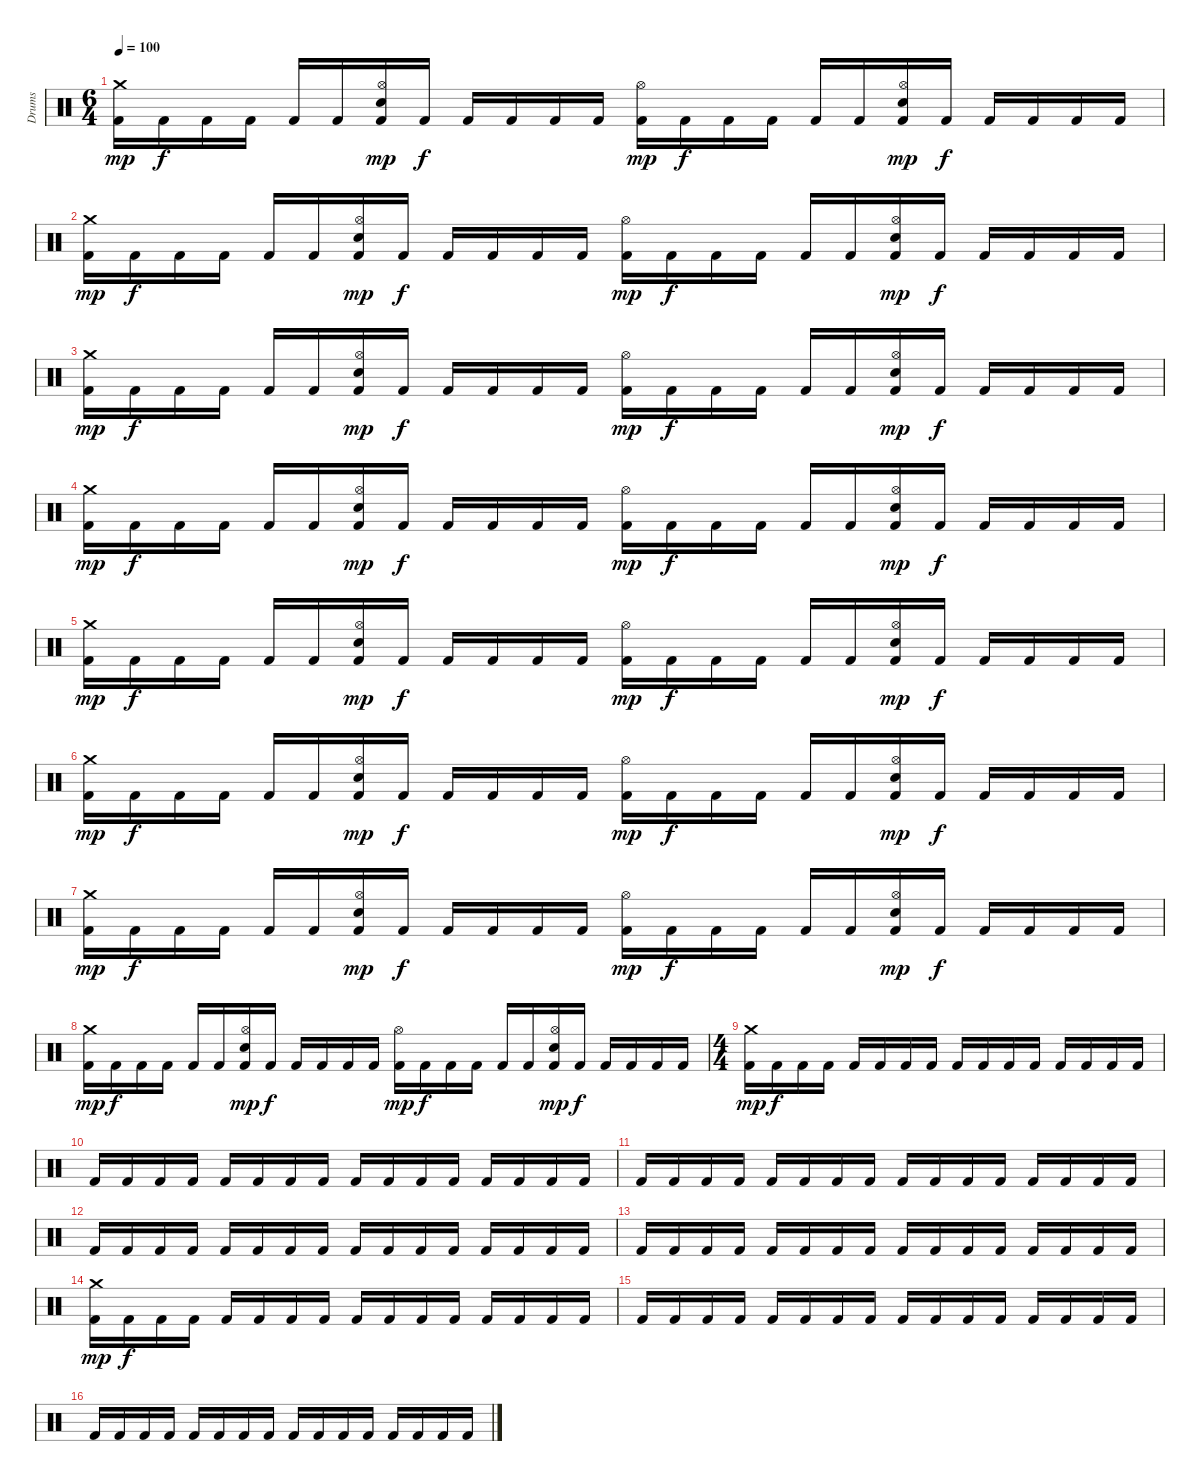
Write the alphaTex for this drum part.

\track ("Drums" "Drums") {instrument percussion}
\staff {score}
\articulation defaults
\ts (6 4)
\tempo 100
\clef neutral
\ks c
("Crash medium (hit)" "Kick (hit) 2").16{dy mp} "Kick (hit) 2".16{dy f} "Kick (hit) 2".16 "Kick (hit) 2".16 "Kick (hit) 2".16 "Kick (hit) 2".16 ("Hi-Hat (open)" "Snare (hit) 2" "Kick (hit) 2").16{dy mp} "Kick (hit) 2".16{dy f} "Kick (hit) 2".16 "Kick (hit) 2".16 "Kick (hit) 2".16 "Kick (hit) 2".16 ("Hi-Hat (open)" "Kick (hit) 2").16{dy mp} "Kick (hit) 2".16{dy f} "Kick (hit) 2".16 "Kick (hit) 2".16 "Kick (hit) 2".16 "Kick (hit) 2".16 ("Hi-Hat (open)" "Snare (hit) 2" "Kick (hit) 2").16{dy mp} "Kick (hit) 2".16{dy f} "Kick (hit) 2".16 "Kick (hit) 2".16 "Kick (hit) 2".16 "Kick (hit) 2".16 |
("Crash medium (hit)" "Kick (hit) 2").16{dy mp} "Kick (hit) 2".16{dy f} "Kick (hit) 2".16 "Kick (hit) 2".16 "Kick (hit) 2".16 "Kick (hit) 2".16 ("Hi-Hat (open)" "Snare (hit) 2" "Kick (hit) 2").16{dy mp} "Kick (hit) 2".16{dy f} "Kick (hit) 2".16 "Kick (hit) 2".16 "Kick (hit) 2".16 "Kick (hit) 2".16 ("Hi-Hat (open)" "Kick (hit) 2").16{dy mp} "Kick (hit) 2".16{dy f} "Kick (hit) 2".16 "Kick (hit) 2".16 "Kick (hit) 2".16 "Kick (hit) 2".16 ("Hi-Hat (open)" "Snare (hit) 2" "Kick (hit) 2").16{dy mp} "Kick (hit) 2".16{dy f} "Kick (hit) 2".16 "Kick (hit) 2".16 "Kick (hit) 2".16 "Kick (hit) 2".16 |
("Crash medium (hit)" "Kick (hit) 2").16{dy mp} "Kick (hit) 2".16{dy f} "Kick (hit) 2".16 "Kick (hit) 2".16 "Kick (hit) 2".16 "Kick (hit) 2".16 ("Hi-Hat (open)" "Snare (hit) 2" "Kick (hit) 2").16{dy mp} "Kick (hit) 2".16{dy f} "Kick (hit) 2".16 "Kick (hit) 2".16 "Kick (hit) 2".16 "Kick (hit) 2".16 ("Hi-Hat (open)" "Kick (hit) 2").16{dy mp} "Kick (hit) 2".16{dy f} "Kick (hit) 2".16 "Kick (hit) 2".16 "Kick (hit) 2".16 "Kick (hit) 2".16 ("Hi-Hat (open)" "Snare (hit) 2" "Kick (hit) 2").16{dy mp} "Kick (hit) 2".16{dy f} "Kick (hit) 2".16 "Kick (hit) 2".16 "Kick (hit) 2".16 "Kick (hit) 2".16 |
("Crash medium (hit)" "Kick (hit) 2").16{dy mp} "Kick (hit) 2".16{dy f} "Kick (hit) 2".16 "Kick (hit) 2".16 "Kick (hit) 2".16 "Kick (hit) 2".16 ("Hi-Hat (open)" "Snare (hit) 2" "Kick (hit) 2").16{dy mp} "Kick (hit) 2".16{dy f} "Kick (hit) 2".16 "Kick (hit) 2".16 "Kick (hit) 2".16 "Kick (hit) 2".16 ("Hi-Hat (open)" "Kick (hit) 2").16{dy mp} "Kick (hit) 2".16{dy f} "Kick (hit) 2".16 "Kick (hit) 2".16 "Kick (hit) 2".16 "Kick (hit) 2".16 ("Hi-Hat (open)" "Snare (hit) 2" "Kick (hit) 2").16{dy mp} "Kick (hit) 2".16{dy f} "Kick (hit) 2".16 "Kick (hit) 2".16 "Kick (hit) 2".16 "Kick (hit) 2".16 |
("Crash medium (hit)" "Kick (hit) 2").16{dy mp} "Kick (hit) 2".16{dy f} "Kick (hit) 2".16 "Kick (hit) 2".16 "Kick (hit) 2".16 "Kick (hit) 2".16 ("Hi-Hat (open)" "Snare (hit) 2" "Kick (hit) 2").16{dy mp} "Kick (hit) 2".16{dy f} "Kick (hit) 2".16 "Kick (hit) 2".16 "Kick (hit) 2".16 "Kick (hit) 2".16 ("Hi-Hat (open)" "Kick (hit) 2").16{dy mp} "Kick (hit) 2".16{dy f} "Kick (hit) 2".16 "Kick (hit) 2".16 "Kick (hit) 2".16 "Kick (hit) 2".16 ("Hi-Hat (open)" "Snare (hit) 2" "Kick (hit) 2").16{dy mp} "Kick (hit) 2".16{dy f} "Kick (hit) 2".16 "Kick (hit) 2".16 "Kick (hit) 2".16 "Kick (hit) 2".16 |
("Crash medium (hit)" "Kick (hit) 2").16{dy mp} "Kick (hit) 2".16{dy f} "Kick (hit) 2".16 "Kick (hit) 2".16 "Kick (hit) 2".16 "Kick (hit) 2".16 ("Hi-Hat (open)" "Snare (hit) 2" "Kick (hit) 2").16{dy mp} "Kick (hit) 2".16{dy f} "Kick (hit) 2".16 "Kick (hit) 2".16 "Kick (hit) 2".16 "Kick (hit) 2".16 ("Hi-Hat (open)" "Kick (hit) 2").16{dy mp} "Kick (hit) 2".16{dy f} "Kick (hit) 2".16 "Kick (hit) 2".16 "Kick (hit) 2".16 "Kick (hit) 2".16 ("Hi-Hat (open)" "Snare (hit) 2" "Kick (hit) 2").16{dy mp} "Kick (hit) 2".16{dy f} "Kick (hit) 2".16 "Kick (hit) 2".16 "Kick (hit) 2".16 "Kick (hit) 2".16 |
("Crash medium (hit)" "Kick (hit) 2").16{dy mp} "Kick (hit) 2".16{dy f} "Kick (hit) 2".16 "Kick (hit) 2".16 "Kick (hit) 2".16 "Kick (hit) 2".16 ("Hi-Hat (open)" "Snare (hit) 2" "Kick (hit) 2").16{dy mp} "Kick (hit) 2".16{dy f} "Kick (hit) 2".16 "Kick (hit) 2".16 "Kick (hit) 2".16 "Kick (hit) 2".16 ("Hi-Hat (open)" "Kick (hit) 2").16{dy mp} "Kick (hit) 2".16{dy f} "Kick (hit) 2".16 "Kick (hit) 2".16 "Kick (hit) 2".16 "Kick (hit) 2".16 ("Hi-Hat (open)" "Snare (hit) 2" "Kick (hit) 2").16{dy mp} "Kick (hit) 2".16{dy f} "Kick (hit) 2".16 "Kick (hit) 2".16 "Kick (hit) 2".16 "Kick (hit) 2".16 |
("Crash medium (hit)" "Kick (hit) 2").16{dy mp} "Kick (hit) 2".16{dy f} "Kick (hit) 2".16 "Kick (hit) 2".16 "Kick (hit) 2".16 "Kick (hit) 2".16 ("Hi-Hat (open)" "Snare (hit) 2" "Kick (hit) 2").16{dy mp} "Kick (hit) 2".16{dy f} "Kick (hit) 2".16 "Kick (hit) 2".16 "Kick (hit) 2".16 "Kick (hit) 2".16 ("Hi-Hat (open)" "Kick (hit) 2").16{dy mp} "Kick (hit) 2".16{dy f} "Kick (hit) 2".16 "Kick (hit) 2".16 "Kick (hit) 2".16 "Kick (hit) 2".16 ("Hi-Hat (open)" "Snare (hit) 2" "Kick (hit) 2").16{dy mp} "Kick (hit) 2".16{dy f} "Kick (hit) 2".16 "Kick (hit) 2".16 "Kick (hit) 2".16 "Kick (hit) 2".16 |
\ts (4 4)
("Crash medium (hit)" "Kick (hit) 2").16{dy mp} "Kick (hit) 2".16{dy f} "Kick (hit) 2".16 "Kick (hit) 2".16 "Kick (hit) 2".16 "Kick (hit) 2".16 "Kick (hit) 2".16 "Kick (hit) 2".16 "Kick (hit) 2".16 "Kick (hit) 2".16 "Kick (hit) 2".16 "Kick (hit) 2".16 "Kick (hit) 2".16 "Kick (hit) 2".16 "Kick (hit) 2".16 "Kick (hit) 2".16 |
"Kick (hit) 2".16 "Kick (hit) 2".16 "Kick (hit) 2".16 "Kick (hit) 2".16 "Kick (hit) 2".16 "Kick (hit) 2".16 "Kick (hit) 2".16 "Kick (hit) 2".16 "Kick (hit) 2".16 "Kick (hit) 2".16 "Kick (hit) 2".16 "Kick (hit) 2".16 "Kick (hit) 2".16 "Kick (hit) 2".16 "Kick (hit) 2".16 "Kick (hit) 2".16 |
"Kick (hit) 2".16 "Kick (hit) 2".16 "Kick (hit) 2".16 "Kick (hit) 2".16 "Kick (hit) 2".16 "Kick (hit) 2".16 "Kick (hit) 2".16 "Kick (hit) 2".16 "Kick (hit) 2".16 "Kick (hit) 2".16 "Kick (hit) 2".16 "Kick (hit) 2".16 "Kick (hit) 2".16 "Kick (hit) 2".16 "Kick (hit) 2".16 "Kick (hit) 2".16 |
"Kick (hit) 2".16 "Kick (hit) 2".16 "Kick (hit) 2".16 "Kick (hit) 2".16 "Kick (hit) 2".16 "Kick (hit) 2".16 "Kick (hit) 2".16 "Kick (hit) 2".16 "Kick (hit) 2".16 "Kick (hit) 2".16 "Kick (hit) 2".16 "Kick (hit) 2".16 "Kick (hit) 2".16 "Kick (hit) 2".16 "Kick (hit) 2".16 "Kick (hit) 2".16 |
"Kick (hit) 2".16 "Kick (hit) 2".16 "Kick (hit) 2".16 "Kick (hit) 2".16 "Kick (hit) 2".16 "Kick (hit) 2".16 "Kick (hit) 2".16 "Kick (hit) 2".16 "Kick (hit) 2".16 "Kick (hit) 2".16 "Kick (hit) 2".16 "Kick (hit) 2".16 "Kick (hit) 2".16 "Kick (hit) 2".16 "Kick (hit) 2".16 "Kick (hit) 2".16 |
("Crash medium (hit)" "Kick (hit) 2").16{dy mp} "Kick (hit) 2".16{dy f} "Kick (hit) 2".16 "Kick (hit) 2".16 "Kick (hit) 2".16 "Kick (hit) 2".16 "Kick (hit) 2".16 "Kick (hit) 2".16 "Kick (hit) 2".16 "Kick (hit) 2".16 "Kick (hit) 2".16 "Kick (hit) 2".16 "Kick (hit) 2".16 "Kick (hit) 2".16 "Kick (hit) 2".16 "Kick (hit) 2".16 |
"Kick (hit) 2".16 "Kick (hit) 2".16 "Kick (hit) 2".16 "Kick (hit) 2".16 "Kick (hit) 2".16 "Kick (hit) 2".16 "Kick (hit) 2".16 "Kick (hit) 2".16 "Kick (hit) 2".16 "Kick (hit) 2".16 "Kick (hit) 2".16 "Kick (hit) 2".16 "Kick (hit) 2".16 "Kick (hit) 2".16 "Kick (hit) 2".16 "Kick (hit) 2".16 |
"Kick (hit) 2".16 "Kick (hit) 2".16 "Kick (hit) 2".16 "Kick (hit) 2".16 "Kick (hit) 2".16 "Kick (hit) 2".16 "Kick (hit) 2".16 "Kick (hit) 2".16 "Kick (hit) 2".16 "Kick (hit) 2".16 "Kick (hit) 2".16 "Kick (hit) 2".16 "Kick (hit) 2".16 "Kick (hit) 2".16 "Kick (hit) 2".16 "Kick (hit) 2".16
